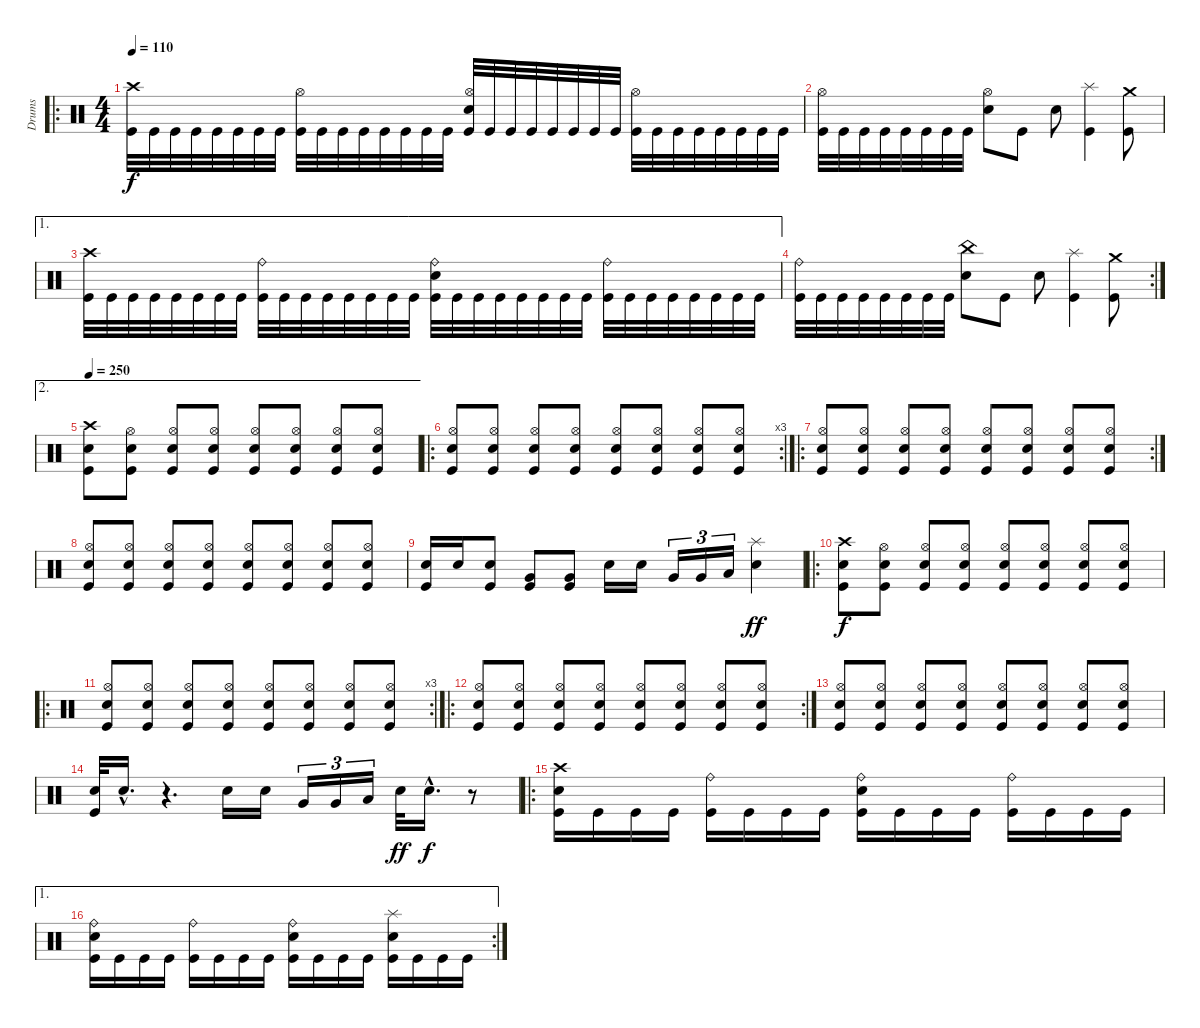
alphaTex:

\track ("Drums" "Drums") {instrument percussion}
\staff {score}
\articulation defaults
\ro
\ts (4 4)
\tempo 110
\clef neutral
\ks c
("Crash high (hit)" "Kick (hit)").32{dy f} "Kick (hit)".32 "Kick (hit)".32 "Kick (hit)".32 "Kick (hit)".32 "Kick (hit)".32 "Kick (hit)".32 "Kick (hit)".32 ("Hi-Hat (open)" "Kick (hit)").32 "Kick (hit)".32 "Kick (hit)".32 "Kick (hit)".32 "Kick (hit)".32 "Kick (hit)".32 "Kick (hit)".32 "Kick (hit)".32 ("Hi-Hat (open)" "Electric Snare (hit)" "Kick (hit)").32 "Kick (hit)".32 "Kick (hit)".32 "Kick (hit)".32 "Kick (hit)".32 "Kick (hit)".32 "Kick (hit)".32 "Kick (hit)".32 ("Hi-Hat (open)" "Kick (hit)").32 "Kick (hit)".32 "Kick (hit)".32 "Kick (hit)".32 "Kick (hit)".32 "Kick (hit)".32 "Kick (hit)".32 "Kick (hit)".32 |
("Hi-Hat (open)" "Kick (hit)").32 "Kick (hit)".32 "Kick (hit)".32 "Kick (hit)".32 "Kick (hit)".32 "Kick (hit)".32 "Kick (hit)".32 "Kick (hit)".32 ("Hi-Hat (open)" "Electric Snare (hit)").8 "Kick (hit)".8 "Electric Snare (hit)".8 ("Splash (hit)" "Kick (hit)").4 ("Crash medium (hit)" "Kick (hit)").8 |
\ae 1
("Crash high (hit)" "Kick (hit)").32 "Kick (hit)".32 "Kick (hit)".32 "Kick (hit)".32 "Kick (hit)".32 "Kick (hit)".32 "Kick (hit)".32 "Kick (hit)".32 ("Ride (bell)" "Kick (hit)").32 "Kick (hit)".32 "Kick (hit)".32 "Kick (hit)".32 "Kick (hit)".32 "Kick (hit)".32 "Kick (hit)".32 "Kick (hit)".32 ("Ride (bell)" "Electric Snare (hit)" "Kick (hit)").32 "Kick (hit)".32 "Kick (hit)".32 "Kick (hit)".32 "Kick (hit)".32 "Kick (hit)".32 "Kick (hit)".32 "Kick (hit)".32 ("Ride (bell)" "Kick (hit)").32 "Kick (hit)".32 "Kick (hit)".32 "Kick (hit)".32 "Kick (hit)".32 "Kick (hit)".32 "Kick (hit)".32 "Kick (hit)".32 |
\rc 2
("Ride (bell)" "Kick (hit)").32 "Kick (hit)".32 "Kick (hit)".32 "Kick (hit)".32 "Kick (hit)".32 "Kick (hit)".32 "Kick (hit)".32 "Kick (hit)".32 ("China (hit)" "Electric Snare (hit)").8 "Kick (hit)".8 "Electric Snare (hit)".8 ("Splash (hit)" "Kick (hit)").4 ("Crash medium (hit)" "Kick (hit)").8 |
\ae 2
\tempo 250
("Crash high (hit)" "Electric Snare (hit)" "Kick (hit)").8 ("Hi-Hat (open)" "Electric Snare (hit)" "Kick (hit)").8 ("Hi-Hat (open)" "Electric Snare (hit)" "Kick (hit)").8 ("Hi-Hat (open)" "Electric Snare (hit)" "Kick (hit)").8 ("Hi-Hat (open)" "Electric Snare (hit)" "Kick (hit)").8 ("Hi-Hat (open)" "Electric Snare (hit)" "Kick (hit)").8 ("Hi-Hat (open)" "Electric Snare (hit)" "Kick (hit)").8 ("Hi-Hat (open)" "Electric Snare (hit)" "Kick (hit)").8 |
\ro
\rc 3
("Hi-Hat (open)" "Electric Snare (hit)" "Kick (hit)").8 ("Hi-Hat (open)" "Electric Snare (hit)" "Kick (hit)").8 ("Hi-Hat (open)" "Electric Snare (hit)" "Kick (hit)").8 ("Hi-Hat (open)" "Electric Snare (hit)" "Kick (hit)").8 ("Hi-Hat (open)" "Electric Snare (hit)" "Kick (hit)").8 ("Hi-Hat (open)" "Electric Snare (hit)" "Kick (hit)").8 ("Hi-Hat (open)" "Electric Snare (hit)" "Kick (hit)").8 ("Hi-Hat (open)" "Electric Snare (hit)" "Kick (hit)").8 |
\ro
\rc 2
("Hi-Hat (open)" "Electric Snare (hit)" "Kick (hit)").8 ("Hi-Hat (open)" "Electric Snare (hit)" "Kick (hit)").8 ("Hi-Hat (open)" "Electric Snare (hit)" "Kick (hit)").8 ("Hi-Hat (open)" "Electric Snare (hit)" "Kick (hit)").8 ("Hi-Hat (open)" "Electric Snare (hit)" "Kick (hit)").8 ("Hi-Hat (open)" "Electric Snare (hit)" "Kick (hit)").8 ("Hi-Hat (open)" "Electric Snare (hit)" "Kick (hit)").8 ("Hi-Hat (open)" "Electric Snare (hit)" "Kick (hit)").8 |
("Hi-Hat (open)" "Electric Snare (hit)" "Kick (hit)").8 ("Hi-Hat (open)" "Electric Snare (hit)" "Kick (hit)").8 ("Hi-Hat (open)" "Electric Snare (hit)" "Kick (hit)").8 ("Hi-Hat (open)" "Electric Snare (hit)" "Kick (hit)").8 ("Hi-Hat (open)" "Electric Snare (hit)" "Kick (hit)").8 ("Hi-Hat (open)" "Electric Snare (hit)" "Kick (hit)").8 ("Hi-Hat (open)" "Electric Snare (hit)" "Kick (hit)").8 ("Hi-Hat (open)" "Electric Snare (hit)" "Kick (hit)").8 |
("Electric Snare (hit)" "Kick (hit)").16 "Electric Snare (hit)".16 ("Electric Snare (hit)" "Kick (hit)").8 ("Very Low Tom (hit)" "Kick (hit)").8 ("Very Low Tom (hit)" "Kick (hit)").8 "Electric Snare (hit)".16 "Electric Snare (hit)".16 "Very Low Tom (hit)".16{tu (3 2)} "Very Low Tom (hit)".16{tu (3 2)} "Low Floor Tom (hit)".16{tu (3 2)} ("Splash (hit)" "Electric Snare (hit)").4{dy ff} |
\ro
("Crash high (hit)" "Electric Snare (hit)" "Kick (hit)").8{dy f} ("Hi-Hat (open)" "Electric Snare (hit)" "Kick (hit)").8 ("Hi-Hat (open)" "Electric Snare (hit)" "Kick (hit)").8 ("Hi-Hat (open)" "Electric Snare (hit)" "Kick (hit)").8 ("Hi-Hat (open)" "Electric Snare (hit)" "Kick (hit)").8 ("Hi-Hat (open)" "Electric Snare (hit)" "Kick (hit)").8 ("Hi-Hat (open)" "Electric Snare (hit)" "Kick (hit)").8 ("Hi-Hat (open)" "Electric Snare (hit)" "Kick (hit)").8 |
\ro
\rc 3
("Hi-Hat (open)" "Electric Snare (hit)" "Kick (hit)").8 ("Hi-Hat (open)" "Electric Snare (hit)" "Kick (hit)").8 ("Hi-Hat (open)" "Electric Snare (hit)" "Kick (hit)").8 ("Hi-Hat (open)" "Electric Snare (hit)" "Kick (hit)").8 ("Hi-Hat (open)" "Electric Snare (hit)" "Kick (hit)").8 ("Hi-Hat (open)" "Electric Snare (hit)" "Kick (hit)").8 ("Hi-Hat (open)" "Electric Snare (hit)" "Kick (hit)").8 ("Hi-Hat (open)" "Electric Snare (hit)" "Kick (hit)").8 |
\ro
\rc 2
("Hi-Hat (open)" "Electric Snare (hit)" "Kick (hit)").8 ("Hi-Hat (open)" "Electric Snare (hit)" "Kick (hit)").8 ("Hi-Hat (open)" "Electric Snare (hit)" "Kick (hit)").8 ("Hi-Hat (open)" "Electric Snare (hit)" "Kick (hit)").8 ("Hi-Hat (open)" "Electric Snare (hit)" "Kick (hit)").8 ("Hi-Hat (open)" "Electric Snare (hit)" "Kick (hit)").8 ("Hi-Hat (open)" "Electric Snare (hit)" "Kick (hit)").8 ("Hi-Hat (open)" "Electric Snare (hit)" "Kick (hit)").8 |
("Hi-Hat (open)" "Electric Snare (hit)" "Kick (hit)").8 ("Hi-Hat (open)" "Electric Snare (hit)" "Kick (hit)").8 ("Hi-Hat (open)" "Electric Snare (hit)" "Kick (hit)").8 ("Hi-Hat (open)" "Electric Snare (hit)" "Kick (hit)").8 ("Hi-Hat (open)" "Electric Snare (hit)" "Kick (hit)").8 ("Hi-Hat (open)" "Electric Snare (hit)" "Kick (hit)").8 ("Hi-Hat (open)" "Electric Snare (hit)" "Kick (hit)").8 ("Hi-Hat (open)" "Electric Snare (hit)" "Kick (hit)").8 |
("Electric Snare (hit)" "Kick (hit)").32 "Electric Snare (hit)"{hac}.16{d} r.4{d} "Electric Snare (hit)".16 "Electric Snare (hit)".16 "Very Low Tom (hit)".16{tu (3 2)} "Very Low Tom (hit)".16{tu (3 2)} "Low Floor Tom (hit)".16{tu (3 2)} "Electric Snare (hit)".32{dy ff} "Electric Snare (hit)"{hac}.16{d dy f} r.8 |
\ro
("Crash high (hit)" "Electric Snare (hit)" "Kick (hit)").16 "Kick (hit)".16 "Kick (hit)".16 "Kick (hit)".16 ("Ride (bell)" "Kick (hit)").16 "Kick (hit)".16 "Kick (hit)".16 "Kick (hit)".16 ("Ride (bell)" "Electric Snare (hit)" "Kick (hit)").16 "Kick (hit)".16 "Kick (hit)".16 "Kick (hit)".16 ("Ride (bell)" "Kick (hit)").16 "Kick (hit)".16 "Kick (hit)".16 "Kick (hit)".16 |
\ae 1
\rc 2
("Ride (bell)" "Electric Snare (hit)" "Kick (hit)").16 "Kick (hit)".16 "Kick (hit)".16 "Kick (hit)".16 ("Ride (bell)" "Kick (hit)").16 "Kick (hit)".16 "Kick (hit)".16 "Kick (hit)".16 ("Ride (bell)" "Electric Snare (hit)" "Kick (hit)").16 "Kick (hit)".16 "Kick (hit)".16 "Kick (hit)".16 ("Splash (hit)" "Electric Snare (hit)" "Kick (hit)").16 "Kick (hit)".16 "Kick (hit)".16 "Kick (hit)".16
